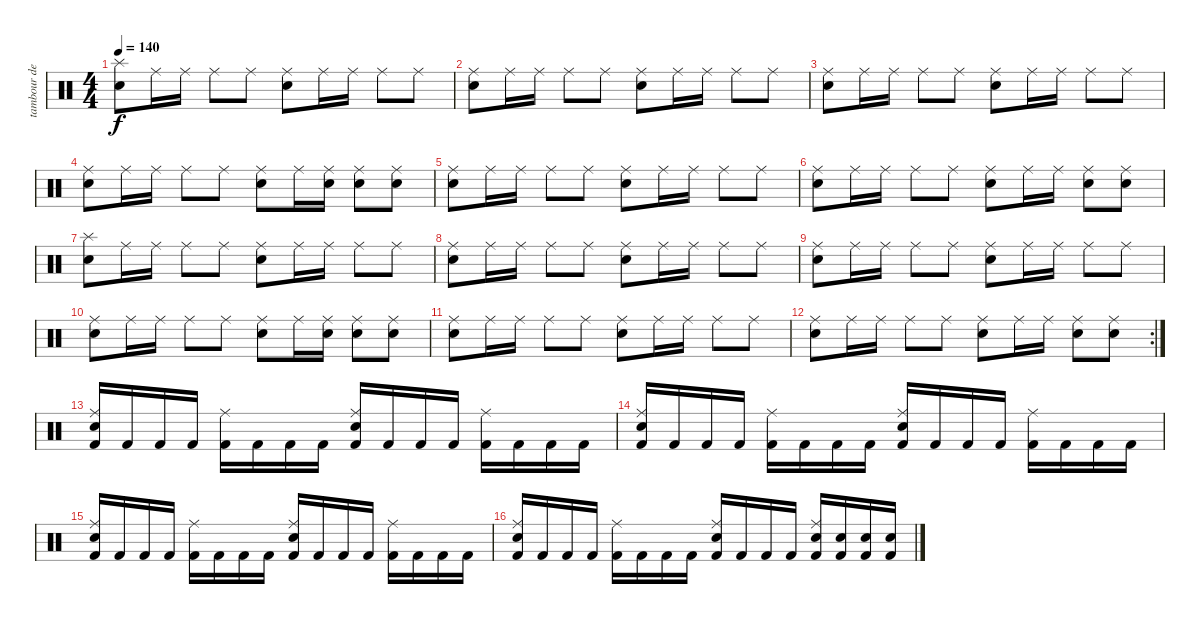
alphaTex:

\track ("tambour de guerre" "tambour de") {instrument percussion}
\staff {score}
\articulation defaults
\ts (4 4)
\tempo 140
\clef neutral
\ks c
("Snare (hit) 2" "Splash (hit)").8{dy f} "Ride (middle)".16 "Ride (middle)".16 "Ride (middle)".8 "Ride (middle)".8 ("Snare (hit) 2" "Ride (middle)").8 "Ride (middle)".16 "Ride (middle)".16 "Ride (middle)".8 "Ride (middle)".8 |
("Snare (hit) 2" "Ride (middle)").8 "Ride (middle)".16 "Ride (middle)".16 "Ride (middle)".8 "Ride (middle)".8 ("Snare (hit) 2" "Ride (middle)").8 "Ride (middle)".16 "Ride (middle)".16 "Ride (middle)".8 "Ride (middle)".8 |
("Snare (hit) 2" "Ride (middle)").8 "Ride (middle)".16 "Ride (middle)".16 "Ride (middle)".8 "Ride (middle)".8 ("Snare (hit) 2" "Ride (middle)").8 "Ride (middle)".16 "Ride (middle)".16 "Ride (middle)".8 "Ride (middle)".8 |
("Snare (hit) 2" "Ride (middle)").8 "Ride (middle)".16 "Ride (middle)".16 "Ride (middle)".8 "Ride (middle)".8 ("Snare (hit) 2" "Ride (middle)").8 "Ride (middle)".16 ("Snare (hit) 2" "Ride (middle)").16 ("Snare (hit) 2" "Ride (middle)").8 ("Snare (hit) 2" "Ride (middle)").8 |
("Snare (hit) 2" "Ride (middle)").8 "Ride (middle)".16 "Ride (middle)".16 "Ride (middle)".8 "Ride (middle)".8 ("Snare (hit) 2" "Ride (middle)").8 "Ride (middle)".16 "Ride (middle)".16 "Ride (middle)".8 "Ride (middle)".8 |
("Snare (hit) 2" "Ride (middle)").8 "Ride (middle)".16 "Ride (middle)".16 "Ride (middle)".8 "Ride (middle)".8 ("Snare (hit) 2" "Ride (middle)").8 "Ride (middle)".16 "Ride (middle)".16 ("Snare (hit) 2" "Ride (middle)").8 ("Snare (hit) 2" "Ride (middle)").8 |
("Snare (hit) 2" "Splash (hit)").8 "Ride (middle)".16 "Ride (middle)".16 "Ride (middle)".8 "Ride (middle)".8 ("Snare (hit) 2" "Ride (middle)").8 "Ride (middle)".16 "Ride (middle)".16 "Ride (middle)".8 "Ride (middle)".8 |
("Snare (hit) 2" "Ride (middle)").8 "Ride (middle)".16 "Ride (middle)".16 "Ride (middle)".8 "Ride (middle)".8 ("Snare (hit) 2" "Ride (middle)").8 "Ride (middle)".16 "Ride (middle)".16 "Ride (middle)".8 "Ride (middle)".8 |
("Snare (hit) 2" "Ride (middle)").8 "Ride (middle)".16 "Ride (middle)".16 "Ride (middle)".8 "Ride (middle)".8 ("Snare (hit) 2" "Ride (middle)").8 "Ride (middle)".16 "Ride (middle)".16 "Ride (middle)".8 "Ride (middle)".8 |
("Snare (hit) 2" "Ride (middle)").8 "Ride (middle)".16 "Ride (middle)".16 "Ride (middle)".8 "Ride (middle)".8 ("Snare (hit) 2" "Ride (middle)").8 "Ride (middle)".16 ("Snare (hit) 2" "Ride (middle)").16 ("Snare (hit) 2" "Ride (middle)").8 ("Snare (hit) 2" "Ride (middle)").8 |
("Snare (hit) 2" "Ride (middle)").8 "Ride (middle)".16 "Ride (middle)".16 "Ride (middle)".8 "Ride (middle)".8 ("Snare (hit) 2" "Ride (middle)").8 "Ride (middle)".16 "Ride (middle)".16 "Ride (middle)".8 "Ride (middle)".8 |
\rc 2
("Snare (hit) 2" "Ride (middle)").8 "Ride (middle)".16 "Ride (middle)".16 "Ride (middle)".8 "Ride (middle)".8 ("Snare (hit) 2" "Ride (middle)").8 "Ride (middle)".16 "Ride (middle)".16 ("Snare (hit) 2" "Ride (middle)").8 ("Snare (hit) 2" "Ride (middle)").8 |
("Kick (hit) 2" "Snare (hit) 2" "Ride (middle)").16 "Kick (hit) 2".16 "Kick (hit) 2".16 "Kick (hit) 2".16 ("Kick (hit) 2" "Ride (middle)").16 "Kick (hit) 2".16 "Kick (hit) 2".16 "Kick (hit) 2".16 ("Kick (hit) 2" "Snare (hit) 2" "Ride (middle)").16 "Kick (hit) 2".16 "Kick (hit) 2".16 "Kick (hit) 2".16 ("Kick (hit) 2" "Ride (middle)").16 "Kick (hit) 2".16 "Kick (hit) 2".16 "Kick (hit) 2".16 |
("Kick (hit) 2" "Snare (hit) 2" "Ride (middle)").16 "Kick (hit) 2".16 "Kick (hit) 2".16 "Kick (hit) 2".16 ("Kick (hit) 2" "Ride (middle)").16 "Kick (hit) 2".16 "Kick (hit) 2".16 "Kick (hit) 2".16 ("Kick (hit) 2" "Snare (hit) 2" "Ride (middle)").16 "Kick (hit) 2".16 "Kick (hit) 2".16 "Kick (hit) 2".16 ("Kick (hit) 2" "Ride (middle)").16 "Kick (hit) 2".16 "Kick (hit) 2".16 "Kick (hit) 2".16 |
("Kick (hit) 2" "Snare (hit) 2" "Ride (middle)").16 "Kick (hit) 2".16 "Kick (hit) 2".16 "Kick (hit) 2".16 ("Kick (hit) 2" "Ride (middle)").16 "Kick (hit) 2".16 "Kick (hit) 2".16 "Kick (hit) 2".16 ("Kick (hit) 2" "Snare (hit) 2" "Ride (middle)").16 "Kick (hit) 2".16 "Kick (hit) 2".16 "Kick (hit) 2".16 ("Kick (hit) 2" "Ride (middle)").16 "Kick (hit) 2".16 "Kick (hit) 2".16 "Kick (hit) 2".16 |
("Kick (hit) 2" "Snare (hit) 2" "Ride (middle)").16 "Kick (hit) 2".16 "Kick (hit) 2".16 "Kick (hit) 2".16 ("Kick (hit) 2" "Ride (middle)").16 "Kick (hit) 2".16 "Kick (hit) 2".16 "Kick (hit) 2".16 ("Kick (hit) 2" "Snare (hit) 2" "Ride (middle)").16 "Kick (hit) 2".16 "Kick (hit) 2".16 "Kick (hit) 2".16 ("Kick (hit) 2" "Snare (hit) 2" "Ride (middle)").16 ("Kick (hit) 2" "Snare (hit) 2").16 ("Kick (hit) 2" "Electric Snare (hit)").16 ("Kick (hit) 2" "Electric Snare (hit)").16
